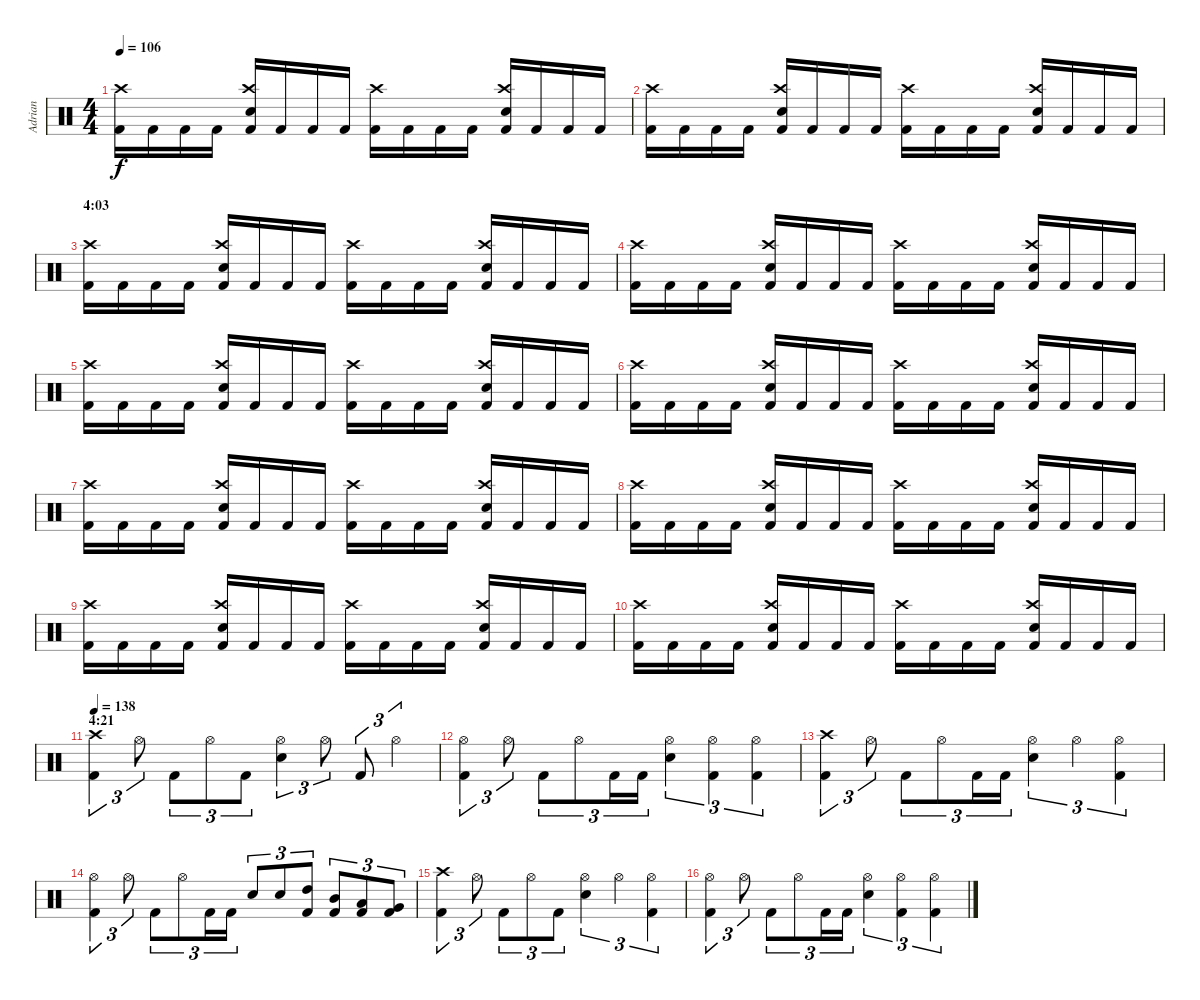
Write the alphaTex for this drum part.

\track ("Adrian" "Adrian") {instrument percussion}
\staff {score}
\articulation defaults
\ts (4 4)
\tempo 106
\clef neutral
\ks c
("Kick (hit) 2" "Crash high (hit)").16{dy f} "Kick (hit) 2".16 "Kick (hit) 2".16 "Kick (hit) 2".16 ("Kick (hit) 2" "Snare (hit) 2" "Crash high (hit)").16 "Kick (hit) 2".16 "Kick (hit) 2".16 "Kick (hit) 2".16 ("Kick (hit) 2" "Crash high (hit)").16 "Kick (hit) 2".16 "Kick (hit) 2".16 "Kick (hit) 2".16 ("Kick (hit) 2" "Snare (hit) 2" "Crash high (hit)").16 "Kick (hit) 2".16 "Kick (hit) 2".16 "Kick (hit) 2".16 |
("Kick (hit) 2" "Crash high (hit)").16 "Kick (hit) 2".16 "Kick (hit) 2".16 "Kick (hit) 2".16 ("Kick (hit) 2" "Snare (hit) 2" "Crash high (hit)").16 "Kick (hit) 2".16 "Kick (hit) 2".16 "Kick (hit) 2".16 ("Kick (hit) 2" "Crash high (hit)").16 "Kick (hit) 2".16 "Kick (hit) 2".16 "Kick (hit) 2".16 ("Kick (hit) 2" "Snare (hit) 2" "Crash high (hit)").16 "Kick (hit) 2".16 "Kick (hit) 2".16 "Kick (hit) 2".16 |
\section ("" "4:03")
("Kick (hit) 2" "Crash high (hit)").16 "Kick (hit) 2".16 "Kick (hit) 2".16 "Kick (hit) 2".16 ("Kick (hit) 2" "Snare (hit) 2" "Crash high (hit)").16 "Kick (hit) 2".16 "Kick (hit) 2".16 "Kick (hit) 2".16 ("Kick (hit) 2" "Crash high (hit)").16 "Kick (hit) 2".16 "Kick (hit) 2".16 "Kick (hit) 2".16 ("Kick (hit) 2" "Snare (hit) 2" "Crash high (hit)").16 "Kick (hit) 2".16 "Kick (hit) 2".16 "Kick (hit) 2".16 |
("Kick (hit) 2" "Crash high (hit)").16 "Kick (hit) 2".16 "Kick (hit) 2".16 "Kick (hit) 2".16 ("Kick (hit) 2" "Snare (hit) 2" "Crash high (hit)").16 "Kick (hit) 2".16 "Kick (hit) 2".16 "Kick (hit) 2".16 ("Kick (hit) 2" "Crash high (hit)").16 "Kick (hit) 2".16 "Kick (hit) 2".16 "Kick (hit) 2".16 ("Kick (hit) 2" "Snare (hit) 2" "Crash high (hit)").16 "Kick (hit) 2".16 "Kick (hit) 2".16 "Kick (hit) 2".16 |
("Kick (hit) 2" "Crash high (hit)").16 "Kick (hit) 2".16 "Kick (hit) 2".16 "Kick (hit) 2".16 ("Kick (hit) 2" "Snare (hit) 2" "Crash high (hit)").16 "Kick (hit) 2".16 "Kick (hit) 2".16 "Kick (hit) 2".16 ("Kick (hit) 2" "Crash high (hit)").16 "Kick (hit) 2".16 "Kick (hit) 2".16 "Kick (hit) 2".16 ("Kick (hit) 2" "Snare (hit) 2" "Crash high (hit)").16 "Kick (hit) 2".16 "Kick (hit) 2".16 "Kick (hit) 2".16 |
("Kick (hit) 2" "Crash high (hit)").16 "Kick (hit) 2".16 "Kick (hit) 2".16 "Kick (hit) 2".16 ("Kick (hit) 2" "Snare (hit) 2" "Crash high (hit)").16 "Kick (hit) 2".16 "Kick (hit) 2".16 "Kick (hit) 2".16 ("Kick (hit) 2" "Crash high (hit)").16 "Kick (hit) 2".16 "Kick (hit) 2".16 "Kick (hit) 2".16 ("Kick (hit) 2" "Snare (hit) 2" "Crash high (hit)").16 "Kick (hit) 2".16 "Kick (hit) 2".16 "Kick (hit) 2".16 |
("Kick (hit) 2" "Crash high (hit)").16 "Kick (hit) 2".16 "Kick (hit) 2".16 "Kick (hit) 2".16 ("Kick (hit) 2" "Snare (hit) 2" "Crash high (hit)").16 "Kick (hit) 2".16 "Kick (hit) 2".16 "Kick (hit) 2".16 ("Kick (hit) 2" "Crash high (hit)").16 "Kick (hit) 2".16 "Kick (hit) 2".16 "Kick (hit) 2".16 ("Kick (hit) 2" "Snare (hit) 2" "Crash high (hit)").16 "Kick (hit) 2".16 "Kick (hit) 2".16 "Kick (hit) 2".16 |
("Kick (hit) 2" "Crash high (hit)").16 "Kick (hit) 2".16 "Kick (hit) 2".16 "Kick (hit) 2".16 ("Kick (hit) 2" "Snare (hit) 2" "Crash high (hit)").16 "Kick (hit) 2".16 "Kick (hit) 2".16 "Kick (hit) 2".16 ("Kick (hit) 2" "Crash high (hit)").16 "Kick (hit) 2".16 "Kick (hit) 2".16 "Kick (hit) 2".16 ("Kick (hit) 2" "Snare (hit) 2" "Crash high (hit)").16 "Kick (hit) 2".16 "Kick (hit) 2".16 "Kick (hit) 2".16 |
("Kick (hit) 2" "Crash high (hit)").16 "Kick (hit) 2".16 "Kick (hit) 2".16 "Kick (hit) 2".16 ("Kick (hit) 2" "Snare (hit) 2" "Crash high (hit)").16 "Kick (hit) 2".16 "Kick (hit) 2".16 "Kick (hit) 2".16 ("Kick (hit) 2" "Crash high (hit)").16 "Kick (hit) 2".16 "Kick (hit) 2".16 "Kick (hit) 2".16 ("Kick (hit) 2" "Snare (hit) 2" "Crash high (hit)").16 "Kick (hit) 2".16 "Kick (hit) 2".16 "Kick (hit) 2".16 |
("Kick (hit) 2" "Crash high (hit)").16 "Kick (hit) 2".16 "Kick (hit) 2".16 "Kick (hit) 2".16 ("Kick (hit) 2" "Snare (hit) 2" "Crash high (hit)").16 "Kick (hit) 2".16 "Kick (hit) 2".16 "Kick (hit) 2".16 ("Kick (hit) 2" "Crash high (hit)").16 "Kick (hit) 2".16 "Kick (hit) 2".16 "Kick (hit) 2".16 ("Kick (hit) 2" "Snare (hit) 2" "Crash high (hit)").16 "Kick (hit) 2".16 "Kick (hit) 2".16 "Kick (hit) 2".16 |
\section ("" "4:21")
\tempo 138
("Kick (hit) 2" "Crash high (hit)").4{tu (3 2)} "Hi-Hat (open)".8{tu (3 2)} "Kick (hit) 2".8{tu (3 2)} "Hi-Hat (open)".8{tu (3 2)} "Kick (hit) 2".8{tu (3 2)} ("Snare (hit) 2" "Hi-Hat (open)").4{tu (3 2)} "Hi-Hat (open)".8{tu (3 2)} "Kick (hit) 2".8{tu (3 2)} "Hi-Hat (open)".4{tu (3 2)} |
("Kick (hit) 2" "Hi-Hat (open)").4{tu (3 2)} "Hi-Hat (open)".8{tu (3 2)} "Kick (hit) 2".8{tu (3 2)} "Hi-Hat (open)".8{tu (3 2)} "Kick (hit) 2".16{tu (3 2)} "Kick (hit) 2".16{tu (3 2)} ("Snare (hit) 2" "Hi-Hat (open)").4{tu (3 2)} ("Kick (hit) 2" "Hi-Hat (open)").4{tu (3 2)} ("Kick (hit) 2" "Hi-Hat (open)").4{tu (3 2)} |
("Kick (hit) 2" "Crash high (hit)").4{tu (3 2)} "Hi-Hat (open)".8{tu (3 2)} "Kick (hit) 2".8{tu (3 2)} "Hi-Hat (open)".8{tu (3 2)} "Kick (hit) 2".16{tu (3 2)} "Kick (hit) 2".16{tu (3 2)} ("Snare (hit) 2" "Hi-Hat (open)").4{tu (3 2)} "Hi-Hat (open)".4{tu (3 2)} ("Kick (hit) 2" "Hi-Hat (open)").4{tu (3 2)} |
("Kick (hit) 2" "Hi-Hat (open)").4{tu (3 2)} "Hi-Hat (open)".8{tu (3 2)} "Kick (hit) 2".8{tu (3 2)} "Hi-Hat (open)".8{tu (3 2)} "Kick (hit) 2".16{tu (3 2)} "Kick (hit) 2".16{tu (3 2)} "Snare (hit) 2".8{tu (3 2)} "Snare (hit) 2".8{tu (3 2)} ("Kick (hit) 2" "High Tom (hit)").8{tu (3 2)} ("Kick (hit) 2" "Mid Tom (hit)").8{tu (3 2)} ("Kick (hit) 2" "Low Tom (hit)").8{tu (3 2)} ("Kick (hit) 2" "Very Low Tom (hit)").8{tu (3 2)} |
("Kick (hit) 2" "Crash high (hit)").4{tu (3 2)} "Hi-Hat (open)".8{tu (3 2)} "Kick (hit) 2".8{tu (3 2)} "Hi-Hat (open)".8{tu (3 2)} "Kick (hit) 2".8{tu (3 2)} ("Snare (hit) 2" "Hi-Hat (open)").4{tu (3 2)} "Hi-Hat (open)".4{tu (3 2)} ("Kick (hit) 2" "Hi-Hat (open)").4{tu (3 2)} |
("Kick (hit) 2" "Hi-Hat (open)").4{tu (3 2)} "Hi-Hat (open)".8{tu (3 2)} "Kick (hit) 2".8{tu (3 2)} "Hi-Hat (open)".8{tu (3 2)} "Kick (hit) 2".16{tu (3 2)} "Kick (hit) 2".16{tu (3 2)} ("Snare (hit) 2" "Hi-Hat (open)").4{tu (3 2)} ("Kick (hit) 2" "Hi-Hat (open)").4{tu (3 2)} ("Kick (hit) 2" "Hi-Hat (open)").4{tu (3 2)}
